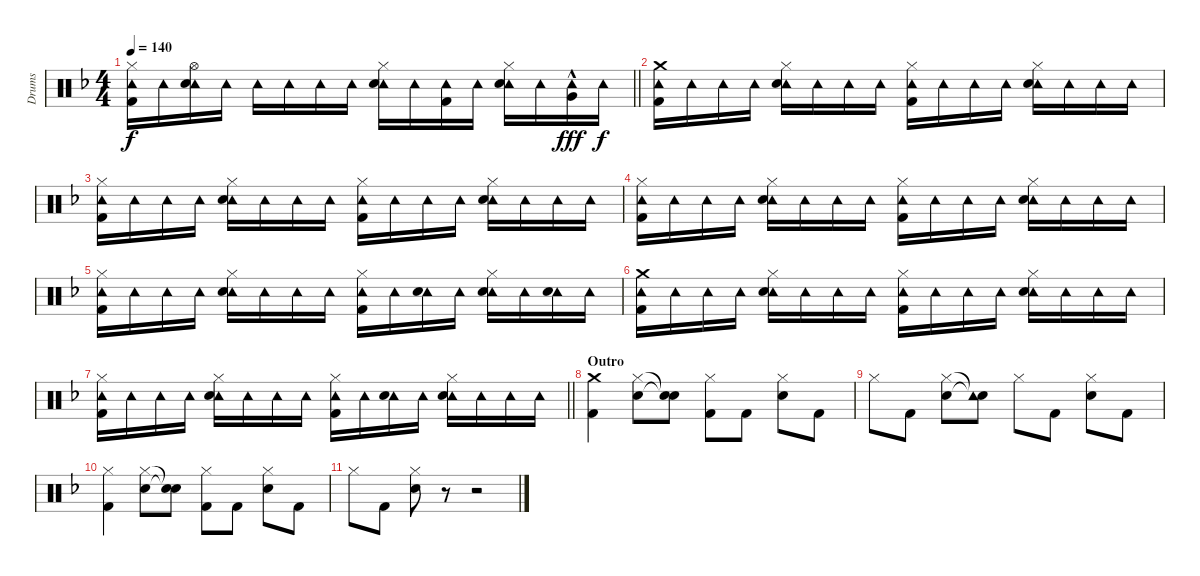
\track ("Drums" "Drums") {instrument percussion}
\staff {score}
\articulation defaults
\ts (4 4)
\tempo 140
\clef neutral
\barLineRight lightlight
\ks f
("Hi-Hat (closed)" "Tambourine (hit)" "Kick (hit) 2").16{dy f} "Tambourine (hit)".16 ("Hi-Hat (open)" "Tambourine (hit)" "Electric Snare (hit)").16 "Tambourine (hit)".16 "Tambourine (hit)".16 "Tambourine (hit)".16 "Tambourine (hit)".16 "Tambourine (hit)".16 ("Hi-Hat (closed)" "Tambourine (hit)" "Electric Snare (hit)").16 "Tambourine (hit)".16 ("Tambourine (hit)" "Kick (hit) 2").16 "Tambourine (hit)".16 ("Hi-Hat (closed)" "Tambourine (hit)" "Electric Snare (hit)").16 "Tambourine (hit)".16 ("Tambourine (hit)" "Very Low Tom (hit)"{hac}).16{dy fff} "Tambourine (hit)".16{dy f} |
("Crash medium (hit)" "Tambourine (hit)" "Kick (hit) 2").16 "Tambourine (hit)".16 "Tambourine (hit)".16 "Tambourine (hit)".16 ("Hi-Hat (closed)" "Tambourine (hit)" "Electric Snare (hit)").16 "Tambourine (hit)".16 "Tambourine (hit)".16 "Tambourine (hit)".16 ("Hi-Hat (closed)" "Tambourine (hit)" "Kick (hit) 2").16 "Tambourine (hit)".16 "Tambourine (hit)".16 "Tambourine (hit)".16 ("Hi-Hat (closed)" "Tambourine (hit)" "Electric Snare (hit)").16 "Tambourine (hit)".16 "Tambourine (hit)".16 "Tambourine (hit)".16 |
("Hi-Hat (closed)" "Tambourine (hit)" "Kick (hit) 2").16 "Tambourine (hit)".16 "Tambourine (hit)".16 "Tambourine (hit)".16 ("Hi-Hat (closed)" "Tambourine (hit)" "Electric Snare (hit)").16 "Tambourine (hit)".16 "Tambourine (hit)".16 "Tambourine (hit)".16 ("Hi-Hat (closed)" "Tambourine (hit)" "Kick (hit) 2").16 "Tambourine (hit)".16 "Tambourine (hit)".16 "Tambourine (hit)".16 ("Hi-Hat (closed)" "Tambourine (hit)" "Electric Snare (hit)").16 "Tambourine (hit)".16 "Tambourine (hit)".16 "Tambourine (hit)".16 |
("Hi-Hat (closed)" "Tambourine (hit)" "Kick (hit) 2").16 "Tambourine (hit)".16 "Tambourine (hit)".16 "Tambourine (hit)".16 ("Hi-Hat (closed)" "Tambourine (hit)" "Electric Snare (hit)").16 "Tambourine (hit)".16 "Tambourine (hit)".16 "Tambourine (hit)".16 ("Hi-Hat (closed)" "Tambourine (hit)" "Kick (hit) 2").16 "Tambourine (hit)".16 "Tambourine (hit)".16 "Tambourine (hit)".16 ("Hi-Hat (closed)" "Tambourine (hit)" "Electric Snare (hit)").16 "Tambourine (hit)".16 "Tambourine (hit)".16 "Tambourine (hit)".16 |
("Hi-Hat (closed)" "Tambourine (hit)" "Kick (hit) 2").16 "Tambourine (hit)".16 "Tambourine (hit)".16 "Tambourine (hit)".16 ("Hi-Hat (closed)" "Tambourine (hit)" "Electric Snare (hit)").16 "Tambourine (hit)".16 "Tambourine (hit)".16 "Tambourine (hit)".16 ("Hi-Hat (closed)" "Tambourine (hit)" "Kick (hit) 2").16 "Tambourine (hit)".16 ("Tambourine (hit)" "Electric Snare (hit)").16 "Tambourine (hit)".16 ("Hi-Hat (closed)" "Tambourine (hit)" "Electric Snare (hit)").16 "Tambourine (hit)".16 ("Tambourine (hit)" "Electric Snare (hit)").16 "Tambourine (hit)".16 |
("Crash medium (hit)" "Tambourine (hit)" "Kick (hit) 2").16 "Tambourine (hit)".16 "Tambourine (hit)".16 "Tambourine (hit)".16 ("Hi-Hat (closed)" "Tambourine (hit)" "Electric Snare (hit)").16 "Tambourine (hit)".16 "Tambourine (hit)".16 "Tambourine (hit)".16 ("Hi-Hat (closed)" "Tambourine (hit)" "Kick (hit) 2").16 "Tambourine (hit)".16 "Tambourine (hit)".16 "Tambourine (hit)".16 ("Hi-Hat (closed)" "Tambourine (hit)" "Electric Snare (hit)").16 "Tambourine (hit)".16 "Tambourine (hit)".16 "Tambourine (hit)".16 |
\barLineRight lightlight
("Hi-Hat (closed)" "Tambourine (hit)" "Kick (hit) 2").16 "Tambourine (hit)".16 "Tambourine (hit)".16 "Tambourine (hit)".16 ("Hi-Hat (closed)" "Tambourine (hit)" "Electric Snare (hit)").16 "Tambourine (hit)".16 "Tambourine (hit)".16 "Tambourine (hit)".16 ("Hi-Hat (closed)" "Tambourine (hit)" "Kick (hit) 2").16 "Tambourine (hit)".16 ("Tambourine (hit)" "Electric Snare (hit)").16 "Tambourine (hit)".16 ("Hi-Hat (closed)" "Tambourine (hit)" "Electric Snare (hit)").16 "Tambourine (hit)".16 "Tambourine (hit)".16 "Tambourine (hit)".16 |
\section ("" "Outro")
("Crash medium (hit)" "Kick (hit) 2").4 ("Hi-Hat (closed)" "Electric Snare (hit)").8 ("Snare (hit)"{t} "Snare (hit)"{t}).8 ("Hi-Hat (closed)" "Kick (hit) 2").8 "Kick (hit) 2".8 ("Hi-Hat (closed)" "Electric Snare (hit)").8 "Kick (hit) 2".8 |
"Hi-Hat (closed)".8 "Kick (hit) 2".8 ("Hi-Hat (closed)" "Electric Snare (hit)").8 ("Snare (hit)"{t} "Tambourine (hit)"{t}).8 "Hi-Hat (closed)".8 "Kick (hit) 2".8 ("Hi-Hat (closed)" "Electric Snare (hit)").8 "Kick (hit) 2".8 |
("Hi-Hat (closed)" "Kick (hit) 2").4 ("Hi-Hat (closed)" "Electric Snare (hit)").8 ("Snare (hit)"{t} "Snare (hit)"{t}).8 ("Hi-Hat (closed)" "Kick (hit) 2").8 "Kick (hit) 2".8 ("Hi-Hat (closed)" "Electric Snare (hit)").8 "Kick (hit) 2".8 |
"Hi-Hat (closed)".8 "Kick (hit) 2".8 ("Hi-Hat (closed)" "Electric Snare (hit)").8 r.8 r.2
